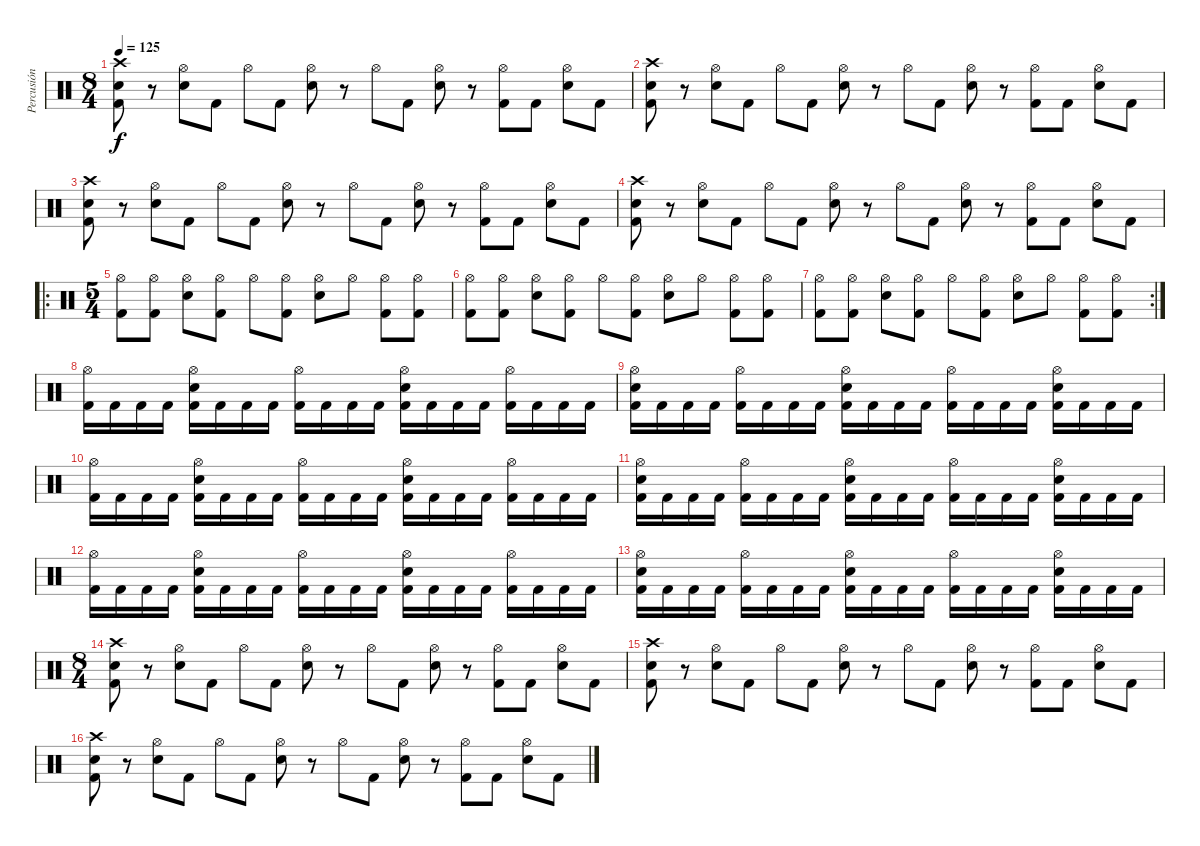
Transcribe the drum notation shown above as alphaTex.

\track ("Percusión" "Percusión") {instrument percussion}
\staff {score}
\articulation defaults
\ts (8 4)
\tempo 125
\clef neutral
\ks c
("Crash high (hit)" "Electric Snare (hit)" "Kick (hit) 2").8{dy f} r.8 ("Hi-Hat (open)" "Electric Snare (hit)").8 "Kick (hit) 2".8 "Hi-Hat (open)".8 "Kick (hit) 2".8 ("Hi-Hat (open)" "Electric Snare (hit)").8 r.8 "Hi-Hat (open)".8 "Kick (hit) 2".8 ("Hi-Hat (open)" "Electric Snare (hit)").8 r.8 ("Hi-Hat (open)" "Kick (hit) 2").8 "Kick (hit) 2".8 ("Hi-Hat (open)" "Electric Snare (hit)").8 "Kick (hit) 2".8 |
("Crash high (hit)" "Electric Snare (hit)" "Kick (hit) 2").8 r.8 ("Hi-Hat (open)" "Electric Snare (hit)").8 "Kick (hit) 2".8 "Hi-Hat (open)".8 "Kick (hit) 2".8 ("Hi-Hat (open)" "Electric Snare (hit)").8 r.8 "Hi-Hat (open)".8 "Kick (hit) 2".8 ("Hi-Hat (open)" "Electric Snare (hit)").8 r.8 ("Hi-Hat (open)" "Kick (hit) 2").8 "Kick (hit) 2".8 ("Hi-Hat (open)" "Electric Snare (hit)").8 "Kick (hit) 2".8 |
("Crash high (hit)" "Electric Snare (hit)" "Kick (hit) 2").8 r.8 ("Hi-Hat (open)" "Electric Snare (hit)").8 "Kick (hit) 2".8 "Hi-Hat (open)".8 "Kick (hit) 2".8 ("Hi-Hat (open)" "Electric Snare (hit)").8 r.8 "Hi-Hat (open)".8 "Kick (hit) 2".8 ("Hi-Hat (open)" "Electric Snare (hit)").8 r.8 ("Hi-Hat (open)" "Kick (hit) 2").8 "Kick (hit) 2".8 ("Hi-Hat (open)" "Electric Snare (hit)").8 "Kick (hit) 2".8 |
("Crash high (hit)" "Electric Snare (hit)" "Kick (hit) 2").8 r.8 ("Hi-Hat (open)" "Electric Snare (hit)").8 "Kick (hit) 2".8 "Hi-Hat (open)".8 "Kick (hit) 2".8 ("Hi-Hat (open)" "Electric Snare (hit)").8 r.8 "Hi-Hat (open)".8 "Kick (hit) 2".8 ("Hi-Hat (open)" "Electric Snare (hit)").8 r.8 ("Hi-Hat (open)" "Kick (hit) 2").8 "Kick (hit) 2".8 ("Hi-Hat (open)" "Electric Snare (hit)").8 "Kick (hit) 2".8 |
\ro
\ts (5 4)
("Hi-Hat (open)" "Kick (hit) 2").8 ("Hi-Hat (open)" "Kick (hit) 2").8 ("Hi-Hat (open)" "Electric Snare (hit)").8 ("Hi-Hat (open)" "Kick (hit) 2").8 "Hi-Hat (open)".8 ("Hi-Hat (open)" "Kick (hit) 2").8 ("Hi-Hat (open)" "Electric Snare (hit)").8 "Hi-Hat (open)".8 ("Hi-Hat (open)" "Kick (hit) 2").8 ("Hi-Hat (open)" "Kick (hit) 2").8 |
("Hi-Hat (open)" "Kick (hit) 2").8 ("Hi-Hat (open)" "Kick (hit) 2").8 ("Hi-Hat (open)" "Electric Snare (hit)").8 ("Hi-Hat (open)" "Kick (hit) 2").8 "Hi-Hat (open)".8 ("Hi-Hat (open)" "Kick (hit) 2").8 ("Hi-Hat (open)" "Electric Snare (hit)").8 "Hi-Hat (open)".8 ("Hi-Hat (open)" "Kick (hit) 2").8 ("Hi-Hat (open)" "Kick (hit) 2").8 |
\rc 2
("Hi-Hat (open)" "Kick (hit) 2").8 ("Hi-Hat (open)" "Kick (hit) 2").8 ("Hi-Hat (open)" "Electric Snare (hit)").8 ("Hi-Hat (open)" "Kick (hit) 2").8 "Hi-Hat (open)".8 ("Hi-Hat (open)" "Kick (hit) 2").8 ("Hi-Hat (open)" "Electric Snare (hit)").8 "Hi-Hat (open)".8 ("Hi-Hat (open)" "Kick (hit) 2").8 ("Hi-Hat (open)" "Kick (hit) 2").8 |
("Hi-Hat (open)" "Kick (hit) 2").16 "Kick (hit) 2".16 "Kick (hit) 2".16 "Kick (hit) 2".16 ("Hi-Hat (open)" "Electric Snare (hit)" "Kick (hit) 2").16 "Kick (hit) 2".16 "Kick (hit) 2".16 "Kick (hit) 2".16 ("Hi-Hat (open)" "Kick (hit) 2").16 "Kick (hit) 2".16 "Kick (hit) 2".16 "Kick (hit) 2".16 ("Hi-Hat (open)" "Electric Snare (hit)" "Kick (hit) 2").16 "Kick (hit) 2".16 "Kick (hit) 2".16 "Kick (hit) 2".16 ("Hi-Hat (open)" "Kick (hit) 2").16 "Kick (hit) 2".16 "Kick (hit) 2".16 "Kick (hit) 2".16 |
("Hi-Hat (open)" "Electric Snare (hit)" "Kick (hit) 2").16 "Kick (hit) 2".16 "Kick (hit) 2".16 "Kick (hit) 2".16 ("Hi-Hat (open)" "Kick (hit) 2").16 "Kick (hit) 2".16 "Kick (hit) 2".16 "Kick (hit) 2".16 ("Hi-Hat (open)" "Electric Snare (hit)" "Kick (hit) 2").16 "Kick (hit) 2".16 "Kick (hit) 2".16 "Kick (hit) 2".16 ("Hi-Hat (open)" "Kick (hit) 2").16 "Kick (hit) 2".16 "Kick (hit) 2".16 "Kick (hit) 2".16 ("Hi-Hat (open)" "Electric Snare (hit)" "Kick (hit) 2").16 "Kick (hit) 2".16 "Kick (hit) 2".16 "Kick (hit) 2".16 |
("Hi-Hat (open)" "Kick (hit) 2").16 "Kick (hit) 2".16 "Kick (hit) 2".16 "Kick (hit) 2".16 ("Hi-Hat (open)" "Electric Snare (hit)" "Kick (hit) 2").16 "Kick (hit) 2".16 "Kick (hit) 2".16 "Kick (hit) 2".16 ("Hi-Hat (open)" "Kick (hit) 2").16 "Kick (hit) 2".16 "Kick (hit) 2".16 "Kick (hit) 2".16 ("Hi-Hat (open)" "Electric Snare (hit)" "Kick (hit) 2").16 "Kick (hit) 2".16 "Kick (hit) 2".16 "Kick (hit) 2".16 ("Hi-Hat (open)" "Kick (hit) 2").16 "Kick (hit) 2".16 "Kick (hit) 2".16 "Kick (hit) 2".16 |
("Hi-Hat (open)" "Electric Snare (hit)" "Kick (hit) 2").16 "Kick (hit) 2".16 "Kick (hit) 2".16 "Kick (hit) 2".16 ("Hi-Hat (open)" "Kick (hit) 2").16 "Kick (hit) 2".16 "Kick (hit) 2".16 "Kick (hit) 2".16 ("Hi-Hat (open)" "Electric Snare (hit)" "Kick (hit) 2").16 "Kick (hit) 2".16 "Kick (hit) 2".16 "Kick (hit) 2".16 ("Hi-Hat (open)" "Kick (hit) 2").16 "Kick (hit) 2".16 "Kick (hit) 2".16 "Kick (hit) 2".16 ("Hi-Hat (open)" "Electric Snare (hit)" "Kick (hit) 2").16 "Kick (hit) 2".16 "Kick (hit) 2".16 "Kick (hit) 2".16 |
("Hi-Hat (open)" "Kick (hit) 2").16 "Kick (hit) 2".16 "Kick (hit) 2".16 "Kick (hit) 2".16 ("Hi-Hat (open)" "Electric Snare (hit)" "Kick (hit) 2").16 "Kick (hit) 2".16 "Kick (hit) 2".16 "Kick (hit) 2".16 ("Hi-Hat (open)" "Kick (hit) 2").16 "Kick (hit) 2".16 "Kick (hit) 2".16 "Kick (hit) 2".16 ("Hi-Hat (open)" "Electric Snare (hit)" "Kick (hit) 2").16 "Kick (hit) 2".16 "Kick (hit) 2".16 "Kick (hit) 2".16 ("Hi-Hat (open)" "Kick (hit) 2").16 "Kick (hit) 2".16 "Kick (hit) 2".16 "Kick (hit) 2".16 |
("Hi-Hat (open)" "Electric Snare (hit)" "Kick (hit) 2").16 "Kick (hit) 2".16 "Kick (hit) 2".16 "Kick (hit) 2".16 ("Hi-Hat (open)" "Kick (hit) 2").16 "Kick (hit) 2".16 "Kick (hit) 2".16 "Kick (hit) 2".16 ("Hi-Hat (open)" "Electric Snare (hit)" "Kick (hit) 2").16 "Kick (hit) 2".16 "Kick (hit) 2".16 "Kick (hit) 2".16 ("Hi-Hat (open)" "Kick (hit) 2").16 "Kick (hit) 2".16 "Kick (hit) 2".16 "Kick (hit) 2".16 ("Hi-Hat (open)" "Electric Snare (hit)" "Kick (hit) 2").16 "Kick (hit) 2".16 "Kick (hit) 2".16 "Kick (hit) 2".16 |
\ts (8 4)
("Crash high (hit)" "Electric Snare (hit)" "Kick (hit) 2").8 r.8 ("Hi-Hat (open)" "Electric Snare (hit)").8 "Kick (hit) 2".8 "Hi-Hat (open)".8 "Kick (hit) 2".8 ("Hi-Hat (open)" "Electric Snare (hit)").8 r.8 "Hi-Hat (open)".8 "Kick (hit) 2".8 ("Hi-Hat (open)" "Electric Snare (hit)").8 r.8 ("Hi-Hat (open)" "Kick (hit) 2").8 "Kick (hit) 2".8 ("Hi-Hat (open)" "Electric Snare (hit)").8 "Kick (hit) 2".8 |
("Crash high (hit)" "Electric Snare (hit)" "Kick (hit) 2").8 r.8 ("Hi-Hat (open)" "Electric Snare (hit)").8 "Kick (hit) 2".8 "Hi-Hat (open)".8 "Kick (hit) 2".8 ("Hi-Hat (open)" "Electric Snare (hit)").8 r.8 "Hi-Hat (open)".8 "Kick (hit) 2".8 ("Hi-Hat (open)" "Electric Snare (hit)").8 r.8 ("Hi-Hat (open)" "Kick (hit) 2").8 "Kick (hit) 2".8 ("Hi-Hat (open)" "Electric Snare (hit)").8 "Kick (hit) 2".8 |
("Crash high (hit)" "Electric Snare (hit)" "Kick (hit) 2").8 r.8 ("Hi-Hat (open)" "Electric Snare (hit)").8 "Kick (hit) 2".8 "Hi-Hat (open)".8 "Kick (hit) 2".8 ("Hi-Hat (open)" "Electric Snare (hit)").8 r.8 "Hi-Hat (open)".8 "Kick (hit) 2".8 ("Hi-Hat (open)" "Electric Snare (hit)").8 r.8 ("Hi-Hat (open)" "Kick (hit) 2").8 "Kick (hit) 2".8 ("Hi-Hat (open)" "Electric Snare (hit)").8 "Kick (hit) 2".8
